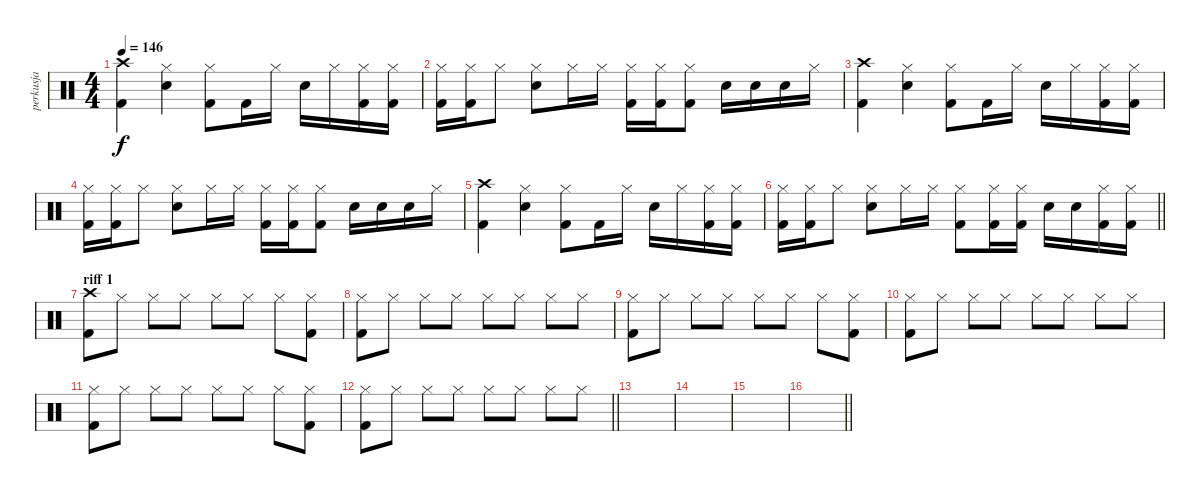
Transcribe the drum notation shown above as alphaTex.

\track ("perkusja" "perkusja") {instrument percussion}
\staff {score}
\articulation defaults
\ts (4 4)
\tempo 146
\clef neutral
\ks c
("Crash high (hit)" "Kick (hit) 2").4{dy f} ("Hi-Hat (closed)" "Electric Snare (hit)").4 ("Hi-Hat (closed)" "Kick (hit) 2").8 "Kick (hit) 2".16 "Hi-Hat (closed)".16 "Electric Snare (hit)".16 "Hi-Hat (closed)".16 ("Hi-Hat (closed)" "Kick (hit) 2").16 ("Hi-Hat (closed)" "Kick (hit) 2").16 |
("Hi-Hat (closed)" "Kick (hit) 2").16 ("Hi-Hat (closed)" "Kick (hit) 2").16 "Hi-Hat (closed)".8 ("Hi-Hat (closed)" "Electric Snare (hit)").8 "Hi-Hat (closed)".16 "Hi-Hat (closed)".16 ("Hi-Hat (closed)" "Kick (hit) 2").16 ("Hi-Hat (closed)" "Kick (hit) 2").16 ("Hi-Hat (closed)" "Kick (hit) 2").8 "Electric Snare (hit)".16 "Electric Snare (hit)".16 "Electric Snare (hit)".16 "Hi-Hat (closed)".16 |
("Crash high (hit)" "Kick (hit) 2").4 ("Hi-Hat (closed)" "Electric Snare (hit)").4 ("Hi-Hat (closed)" "Kick (hit) 2").8 "Kick (hit) 2".16 "Hi-Hat (closed)".16 "Electric Snare (hit)".16 "Hi-Hat (closed)".16 ("Hi-Hat (closed)" "Kick (hit) 2").16 ("Hi-Hat (closed)" "Kick (hit) 2").16 |
("Hi-Hat (closed)" "Kick (hit) 2").16 ("Hi-Hat (closed)" "Kick (hit) 2").16 "Hi-Hat (closed)".8 ("Hi-Hat (closed)" "Electric Snare (hit)").8 "Hi-Hat (closed)".16 "Hi-Hat (closed)".16 ("Hi-Hat (closed)" "Kick (hit) 2").16 ("Hi-Hat (closed)" "Kick (hit) 2").16 ("Hi-Hat (closed)" "Kick (hit) 2").8 "Electric Snare (hit)".16 "Electric Snare (hit)".16 "Electric Snare (hit)".16 "Hi-Hat (closed)".16 |
("Crash high (hit)" "Kick (hit) 2").4 ("Hi-Hat (closed)" "Electric Snare (hit)").4 ("Hi-Hat (closed)" "Kick (hit) 2").8 "Kick (hit) 2".16 "Hi-Hat (closed)".16 "Electric Snare (hit)".16 "Hi-Hat (closed)".16 ("Hi-Hat (closed)" "Kick (hit) 2").16 ("Hi-Hat (closed)" "Kick (hit) 2").16 |
\barLineRight lightlight
("Hi-Hat (closed)" "Kick (hit) 2").16 ("Hi-Hat (closed)" "Kick (hit) 2").16 "Hi-Hat (closed)".8 ("Hi-Hat (closed)" "Electric Snare (hit)").8 "Hi-Hat (closed)".16 "Hi-Hat (closed)".16 ("Hi-Hat (closed)" "Kick (hit) 2").8 ("Hi-Hat (closed)" "Kick (hit) 2").16 ("Hi-Hat (closed)" "Kick (hit) 2").16 "Electric Snare (hit)".16 "Electric Snare (hit)".16 ("Hi-Hat (closed)" "Kick (hit) 2").16 ("Hi-Hat (closed)" "Kick (hit) 2").16 |
\section ("" "riff 1")
("Crash high (hit)" "Kick (hit) 2").8 "Hi-Hat (closed)".8 "Hi-Hat (closed)".8 "Hi-Hat (closed)".8 "Hi-Hat (closed)".8 "Hi-Hat (closed)".8 "Hi-Hat (closed)".8 ("Hi-Hat (closed)" "Kick (hit) 2").8 |
("Hi-Hat (closed)" "Kick (hit) 2").8 "Hi-Hat (closed)".8 "Hi-Hat (closed)".8 "Hi-Hat (closed)".8 "Hi-Hat (closed)".8 "Hi-Hat (closed)".8 "Hi-Hat (closed)".8 "Hi-Hat (closed)".8 |
("Hi-Hat (closed)" "Kick (hit) 2").8 "Hi-Hat (closed)".8 "Hi-Hat (closed)".8 "Hi-Hat (closed)".8 "Hi-Hat (closed)".8 "Hi-Hat (closed)".8 "Hi-Hat (closed)".8 ("Hi-Hat (closed)" "Kick (hit) 2").8 |
("Hi-Hat (closed)" "Kick (hit) 2").8 "Hi-Hat (closed)".8 "Hi-Hat (closed)".8 "Hi-Hat (closed)".8 "Hi-Hat (closed)".8 "Hi-Hat (closed)".8 "Hi-Hat (closed)".8 "Hi-Hat (closed)".8 |
("Hi-Hat (closed)" "Kick (hit) 2").8 "Hi-Hat (closed)".8 "Hi-Hat (closed)".8 "Hi-Hat (closed)".8 "Hi-Hat (closed)".8 "Hi-Hat (closed)".8 "Hi-Hat (closed)".8 ("Hi-Hat (closed)" "Kick (hit) 2").8 |
\barLineRight lightlight
("Hi-Hat (closed)" "Kick (hit) 2").8 "Hi-Hat (closed)".8 "Hi-Hat (closed)".8 "Hi-Hat (closed)".8 "Hi-Hat (closed)".8 "Hi-Hat (closed)".8 "Hi-Hat (closed)".8 "Hi-Hat (closed)".8 |
|
|
|
\barLineRight lightlight
